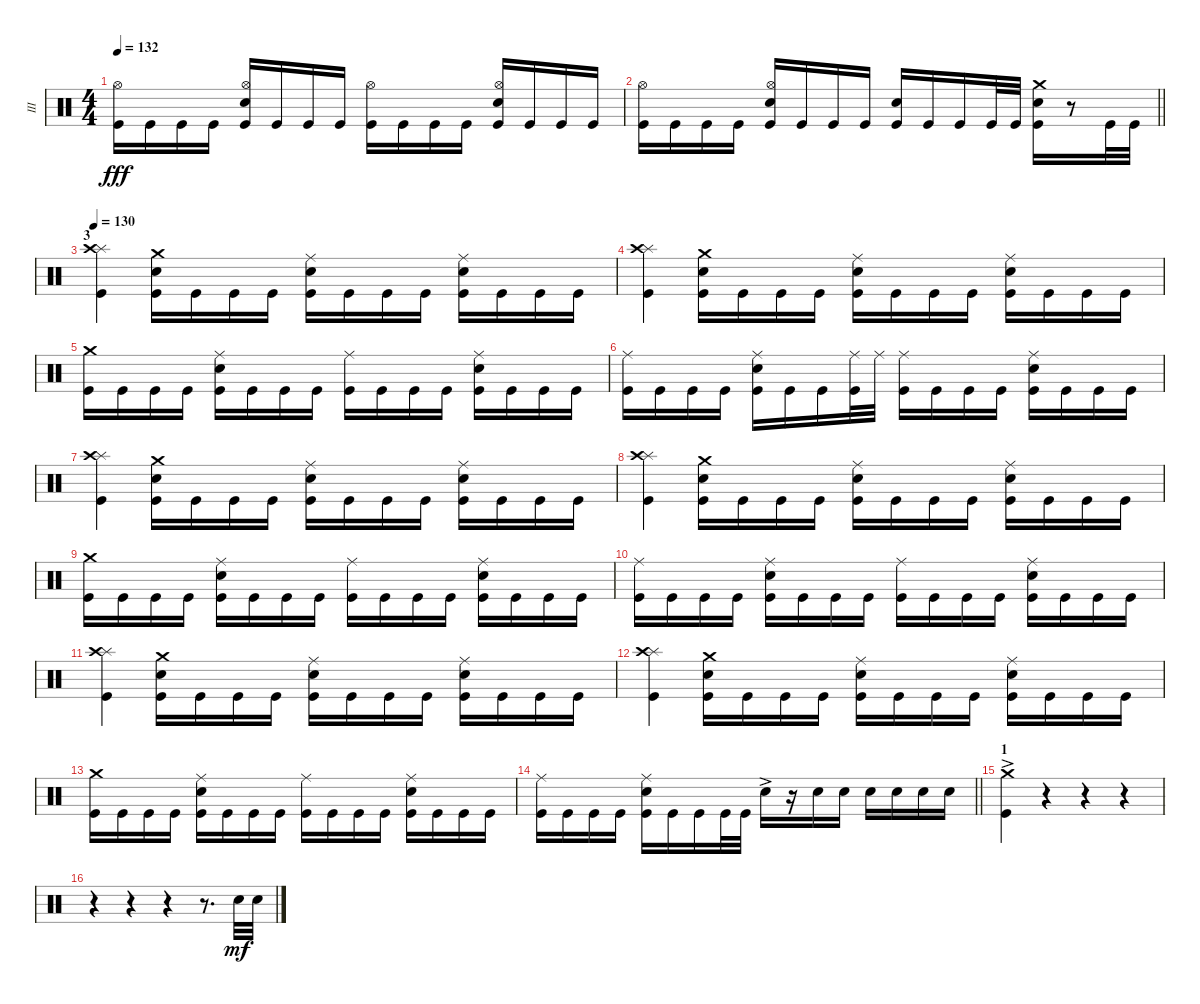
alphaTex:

\track ("III" "III") {instrument percussion}
\staff {score}
\articulation defaults
\ts (4 4)
\tempo 132
\clef neutral
\ks c
("Kick (hit)" "Hi-Hat (open)").16{dy fff} "Kick (hit)".16 "Kick (hit)".16 "Kick (hit)".16 ("Kick (hit)" "Snare (hit) 2" "Hi-Hat (open)").16 "Kick (hit)".16 "Kick (hit)".16 "Kick (hit)".16 ("Kick (hit)" "Hi-Hat (open)").16 "Kick (hit)".16 "Kick (hit)".16 "Kick (hit)".16 ("Kick (hit)" "Snare (hit) 2" "Hi-Hat (open)").16 "Kick (hit)".16 "Kick (hit)".16 "Kick (hit)".16 |
\barLineRight lightlight
("Kick (hit)" "Hi-Hat (open)").16 "Kick (hit)".16 "Kick (hit)".16 "Kick (hit)".16 ("Kick (hit)" "Snare (hit) 2" "Hi-Hat (open)").16 "Kick (hit)".16 "Kick (hit)".16 "Kick (hit)".16 ("Snare (hit) 2" "Kick (hit)").16 "Kick (hit)".16 "Kick (hit)".16 "Kick (hit)".32 "Kick (hit)".32 ("Kick (hit)" "Snare (hit) 2" "Crash medium (hit)").16 r.8 "Kick (hit)".32 "Kick (hit)".32 |
\section ("" "3")
\tempo 130
("Splash (hit)" "Crash high (hit)" "Kick (hit)").4 ("Kick (hit)" "Snare (hit) 2" "Crash medium (hit)").16 "Kick (hit)".16 "Kick (hit)".16 "Kick (hit)".16 ("Snare (hit) 2" "Kick (hit)" "Ride (middle)").16 "Kick (hit)".16 "Kick (hit)".16 "Kick (hit)".16 ("Snare (hit) 2" "Kick (hit)" "Ride (middle)").16 "Kick (hit)".16 "Kick (hit)".16 "Kick (hit)".16 |
("Splash (hit)" "Crash high (hit)" "Kick (hit)").4 ("Kick (hit)" "Snare (hit) 2" "Crash medium (hit)").16 "Kick (hit)".16 "Kick (hit)".16 "Kick (hit)".16 ("Snare (hit) 2" "Kick (hit)" "Ride (middle)").16 "Kick (hit)".16 "Kick (hit)".16 "Kick (hit)".16 ("Snare (hit) 2" "Kick (hit)" "Ride (middle)").16 "Kick (hit)".16 "Kick (hit)".16 "Kick (hit)".16 |
("Kick (hit)" "Crash medium (hit)").16 "Kick (hit)".16 "Kick (hit)".16 "Kick (hit)".16 ("Snare (hit) 2" "Kick (hit)" "Ride (middle)").16 "Kick (hit)".16 "Kick (hit)".16 "Kick (hit)".16 ("Kick (hit)" "Ride (middle)").16 "Kick (hit)".16 "Kick (hit)".16 "Kick (hit)".16 ("Snare (hit) 2" "Kick (hit)" "Ride (middle)").16 "Kick (hit)".16 "Kick (hit)".16 "Kick (hit)".16 |
("Kick (hit)" "Ride (middle)").16 "Kick (hit)".16 "Kick (hit)".16 "Kick (hit)".16 ("Snare (hit) 2" "Kick (hit)" "Ride (middle)").16 "Kick (hit)".16 "Kick (hit)".16 ("Ride (middle)" "Kick (hit)").32 "Ride (middle)".32 ("Kick (hit)" "Ride (middle)").16 "Kick (hit)".16 "Kick (hit)".16 "Kick (hit)".16 ("Snare (hit) 2" "Kick (hit)" "Ride (middle)").16 "Kick (hit)".16 "Kick (hit)".16 "Kick (hit)".16 |
("Splash (hit)" "Crash high (hit)" "Kick (hit)").4 ("Kick (hit)" "Snare (hit) 2" "Crash medium (hit)").16 "Kick (hit)".16 "Kick (hit)".16 "Kick (hit)".16 ("Snare (hit) 2" "Kick (hit)" "Ride (middle)").16 "Kick (hit)".16 "Kick (hit)".16 "Kick (hit)".16 ("Snare (hit) 2" "Kick (hit)" "Ride (middle)").16 "Kick (hit)".16 "Kick (hit)".16 "Kick (hit)".16 |
("Splash (hit)" "Crash high (hit)" "Kick (hit)").4 ("Kick (hit)" "Snare (hit) 2" "Crash medium (hit)").16 "Kick (hit)".16 "Kick (hit)".16 "Kick (hit)".16 ("Snare (hit) 2" "Kick (hit)" "Ride (middle)").16 "Kick (hit)".16 "Kick (hit)".16 "Kick (hit)".16 ("Snare (hit) 2" "Kick (hit)" "Ride (middle)").16 "Kick (hit)".16 "Kick (hit)".16 "Kick (hit)".16 |
("Kick (hit)" "Crash medium (hit)").16 "Kick (hit)".16 "Kick (hit)".16 "Kick (hit)".16 ("Snare (hit) 2" "Kick (hit)" "Ride (middle)").16 "Kick (hit)".16 "Kick (hit)".16 "Kick (hit)".16 ("Kick (hit)" "Ride (middle)").16 "Kick (hit)".16 "Kick (hit)".16 "Kick (hit)".16 ("Snare (hit) 2" "Kick (hit)" "Ride (middle)").16 "Kick (hit)".16 "Kick (hit)".16 "Kick (hit)".16 |
("Kick (hit)" "Ride (middle)").16 "Kick (hit)".16 "Kick (hit)".16 "Kick (hit)".16 ("Snare (hit) 2" "Kick (hit)" "Ride (middle)").16 "Kick (hit)".16 "Kick (hit)".16 "Kick (hit)".16 ("Kick (hit)" "Ride (middle)").16 "Kick (hit)".16 "Kick (hit)".16 "Kick (hit)".16 ("Snare (hit) 2" "Kick (hit)" "Ride (middle)").16 "Kick (hit)".16 "Kick (hit)".16 "Kick (hit)".16 |
("Splash (hit)" "Crash high (hit)" "Kick (hit)").4 ("Kick (hit)" "Snare (hit) 2" "Crash medium (hit)").16 "Kick (hit)".16 "Kick (hit)".16 "Kick (hit)".16 ("Snare (hit) 2" "Kick (hit)" "Ride (middle)").16 "Kick (hit)".16 "Kick (hit)".16 "Kick (hit)".16 ("Snare (hit) 2" "Kick (hit)" "Ride (middle)").16 "Kick (hit)".16 "Kick (hit)".16 "Kick (hit)".16 |
("Splash (hit)" "Crash high (hit)" "Kick (hit)").4 ("Kick (hit)" "Snare (hit) 2" "Crash medium (hit)").16 "Kick (hit)".16 "Kick (hit)".16 "Kick (hit)".16 ("Snare (hit) 2" "Kick (hit)" "Ride (middle)").16 "Kick (hit)".16 "Kick (hit)".16 "Kick (hit)".16 ("Snare (hit) 2" "Kick (hit)" "Ride (middle)").16 "Kick (hit)".16 "Kick (hit)".16 "Kick (hit)".16 |
("Kick (hit)" "Crash medium (hit)").16 "Kick (hit)".16 "Kick (hit)".16 "Kick (hit)".16 ("Snare (hit) 2" "Kick (hit)" "Ride (middle)").16 "Kick (hit)".16 "Kick (hit)".16 "Kick (hit)".16 ("Kick (hit)" "Ride (middle)").16 "Kick (hit)".16 "Kick (hit)".16 "Kick (hit)".16 ("Snare (hit) 2" "Kick (hit)" "Ride (middle)").16 "Kick (hit)".16 "Kick (hit)".16 "Kick (hit)".16 |
\barLineRight lightlight
("Kick (hit)" "Ride (middle)").16 "Kick (hit)".16 "Kick (hit)".16 "Kick (hit)".16 ("Snare (hit) 2" "Kick (hit)" "Ride (middle)").16 "Kick (hit)".16 "Kick (hit)".16 "Kick (hit)".32 "Kick (hit)".32 "Snare (hit) 2"{ac}.16 r.16 "Snare (hit) 2".16 "Snare (hit) 2".16 "Snare (hit) 2".16 "Snare (hit) 2".16 "Snare (hit) 2".16 "Snare (hit) 2".16 |
\section ("" "1")
("Crash medium (hit)"{ac} "Kick (hit)"{ac}).4 r.4 r.4 r.4 |
r.4 r.4 r.4 r.8{d} "Snare (hit) 2".32{dy mf} "Snare (hit) 2".32
